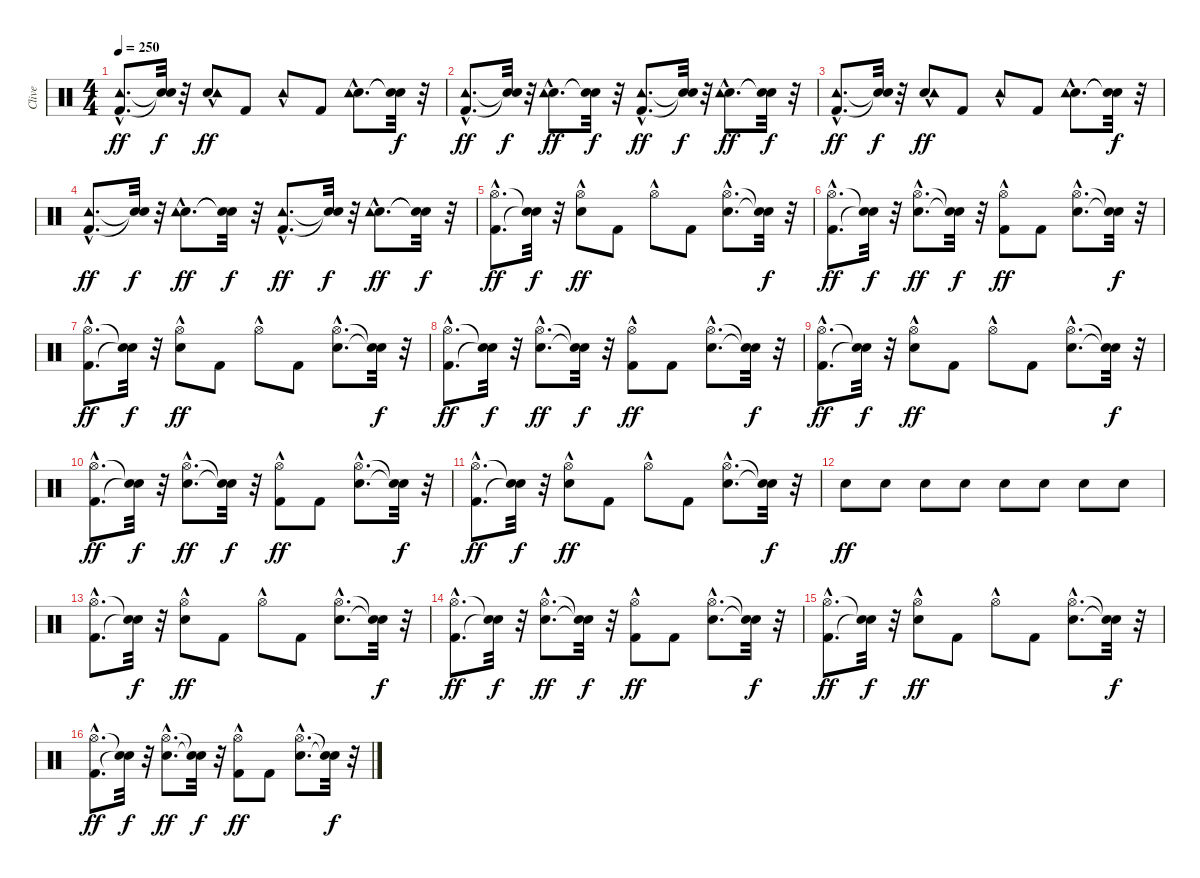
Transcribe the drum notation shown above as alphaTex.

\track ("Clive" "Clive") {instrument percussion}
\staff {score}
\articulation defaults
\ts (4 4)
\tempo 250
\clef neutral
\ks c
("Kick (hit) 2"{hac} "Tambourine (hit)"{hac}).8{d dy ff} ("Snare (hit)"{t} "Snare (hit)"{t}).32{dy f} r.32 ("Snare (hit) 2" "Tambourine (hit)"{hac}).8{dy ff} "Kick (hit) 2".8 "Tambourine (hit)"{hac}.8 "Kick (hit) 2".8 ("Snare (hit) 2"{hac} "Tambourine (hit)"{hac}).8{d} ("Snare (hit)"{t} "Snare (hit)"{t}).32{dy f} r.32 |
("Kick (hit) 2"{hac} "Tambourine (hit)"{hac}).8{d dy ff} ("Snare (hit)"{t} "Snare (hit)"{t}).32{dy f} r.32 ("Snare (hit) 2"{hac} "Tambourine (hit)"{hac}).8{d dy ff} ("Snare (hit)"{t} "Snare (hit)"{t}).32{dy f} r.32 ("Kick (hit) 2"{hac} "Tambourine (hit)"{hac}).8{d dy ff} ("Snare (hit)"{t} "Snare (hit)"{t}).32{dy f} r.32 ("Snare (hit) 2"{hac} "Tambourine (hit)"{hac}).8{d dy ff} ("Snare (hit)"{t} "Snare (hit)"{t}).32{dy f} r.32 |
("Kick (hit) 2"{hac} "Tambourine (hit)"{hac}).8{d dy ff} ("Snare (hit)"{t} "Snare (hit)"{t}).32{dy f} r.32 ("Snare (hit) 2" "Tambourine (hit)"{hac}).8{dy ff} "Kick (hit) 2".8 "Tambourine (hit)"{hac}.8 "Kick (hit) 2".8 ("Snare (hit) 2"{hac} "Tambourine (hit)"{hac}).8{d} ("Snare (hit)"{t} "Snare (hit)"{t}).32{dy f} r.32 |
("Kick (hit) 2"{hac} "Tambourine (hit)"{hac}).8{d dy ff} ("Snare (hit)"{t} "Snare (hit)"{t}).32{dy f} r.32 ("Snare (hit) 2"{hac} "Tambourine (hit)"{hac}).8{d dy ff} ("Snare (hit)"{t} "Snare (hit)"{t}).32{dy f} r.32 ("Kick (hit) 2"{hac} "Tambourine (hit)"{hac}).8{d dy ff} ("Snare (hit)"{t} "Snare (hit)"{t}).32{dy f} r.32 ("Snare (hit) 2"{hac} "Tambourine (hit)"{hac}).8{d dy ff} ("Snare (hit)"{t} "Snare (hit)"{t}).32{dy f} r.32 |
("Kick (hit) 2"{hac} "Hi-Hat (open)"{hac}).8{d dy ff} ("Snare (hit)"{t} "Snare (hit)"{t}).32{dy f} r.32 ("Snare (hit) 2" "Hi-Hat (open)"{hac}).8{dy ff} "Kick (hit) 2".8 "Hi-Hat (open)"{hac}.8 "Kick (hit) 2".8 ("Snare (hit) 2"{hac} "Hi-Hat (open)"{hac}).8{d} ("Snare (hit)"{t} "Snare (hit)"{t}).32{dy f} r.32 |
("Kick (hit) 2"{hac} "Hi-Hat (open)"{hac}).8{d dy ff} ("Snare (hit)"{t} "Snare (hit)"{t}).32{dy f} r.32 ("Snare (hit) 2"{hac} "Hi-Hat (open)"{hac}).8{d dy ff} ("Snare (hit)"{t} "Snare (hit)"{t}).32{dy f} r.32 ("Kick (hit) 2" "Hi-Hat (open)"{hac}).8{dy ff} "Kick (hit) 2".8 ("Snare (hit) 2"{hac} "Hi-Hat (open)"{hac}).8{d} ("Snare (hit)"{t} "Snare (hit)"{t}).32{dy f} r.32 |
("Kick (hit) 2"{hac} "Hi-Hat (open)"{hac}).8{d dy ff} ("Snare (hit)"{t} "Snare (hit)"{t}).32{dy f} r.32 ("Snare (hit) 2" "Hi-Hat (open)"{hac}).8{dy ff} "Kick (hit) 2".8 "Hi-Hat (open)"{hac}.8 "Kick (hit) 2".8 ("Snare (hit) 2"{hac} "Hi-Hat (open)"{hac}).8{d} ("Snare (hit)"{t} "Snare (hit)"{t}).32{dy f} r.32 |
("Kick (hit) 2"{hac} "Hi-Hat (open)"{hac}).8{d dy ff} ("Snare (hit)"{t} "Snare (hit)"{t}).32{dy f} r.32 ("Snare (hit) 2"{hac} "Hi-Hat (open)"{hac}).8{d dy ff} ("Snare (hit)"{t} "Snare (hit)"{t}).32{dy f} r.32 ("Kick (hit) 2" "Hi-Hat (open)"{hac}).8{dy ff} "Kick (hit) 2".8 ("Snare (hit) 2"{hac} "Hi-Hat (open)"{hac}).8{d} ("Snare (hit)"{t} "Snare (hit)"{t}).32{dy f} r.32 |
("Kick (hit) 2"{hac} "Hi-Hat (open)"{hac}).8{d dy ff} ("Snare (hit)"{t} "Snare (hit)"{t}).32{dy f} r.32 ("Snare (hit) 2" "Hi-Hat (open)"{hac}).8{dy ff} "Kick (hit) 2".8 "Hi-Hat (open)"{hac}.8 "Kick (hit) 2".8 ("Snare (hit) 2"{hac} "Hi-Hat (open)"{hac}).8{d} ("Snare (hit)"{t} "Snare (hit)"{t}).32{dy f} r.32 |
("Kick (hit) 2"{hac} "Hi-Hat (open)"{hac}).8{d dy ff} ("Snare (hit)"{t} "Snare (hit)"{t}).32{dy f} r.32 ("Snare (hit) 2"{hac} "Hi-Hat (open)"{hac}).8{d dy ff} ("Snare (hit)"{t} "Snare (hit)"{t}).32{dy f} r.32 ("Kick (hit) 2" "Hi-Hat (open)"{hac}).8{dy ff} "Kick (hit) 2".8 ("Snare (hit) 2"{hac} "Hi-Hat (open)"{hac}).8{d} ("Snare (hit)"{t} "Snare (hit)"{t}).32{dy f} r.32 |
("Kick (hit) 2"{hac} "Hi-Hat (open)"{hac}).8{d dy ff} ("Snare (hit)"{t} "Snare (hit)"{t}).32{dy f} r.32 ("Snare (hit) 2" "Hi-Hat (open)"{hac}).8{dy ff} "Kick (hit) 2".8 "Hi-Hat (open)"{hac}.8 "Kick (hit) 2".8 ("Snare (hit) 2"{hac} "Hi-Hat (open)"{hac}).8{d} ("Snare (hit)"{t} "Snare (hit)"{t}).32{dy f} r.32 |
"Snare (hit) 2".8{dy ff} "Snare (hit) 2".8 "Snare (hit) 2".8 "Snare (hit) 2".8 "Snare (hit) 2".8 "Snare (hit) 2".8 "Snare (hit) 2".8 "Snare (hit) 2".8 |
("Kick (hit) 2"{hac} "Hi-Hat (open)"{hac}).8{d} ("Snare (hit)"{t} "Snare (hit)"{t}).32{dy f} r.32 ("Snare (hit) 2" "Hi-Hat (open)"{hac}).8{dy ff} "Kick (hit) 2".8 "Hi-Hat (open)"{hac}.8 "Kick (hit) 2".8 ("Snare (hit) 2"{hac} "Hi-Hat (open)"{hac}).8{d} ("Snare (hit)"{t} "Snare (hit)"{t}).32{dy f} r.32 |
("Kick (hit) 2"{hac} "Hi-Hat (open)"{hac}).8{d dy ff} ("Snare (hit)"{t} "Snare (hit)"{t}).32{dy f} r.32 ("Snare (hit) 2"{hac} "Hi-Hat (open)"{hac}).8{d dy ff} ("Snare (hit)"{t} "Snare (hit)"{t}).32{dy f} r.32 ("Kick (hit) 2" "Hi-Hat (open)"{hac}).8{dy ff} "Kick (hit) 2".8 ("Snare (hit) 2"{hac} "Hi-Hat (open)"{hac}).8{d} ("Snare (hit)"{t} "Snare (hit)"{t}).32{dy f} r.32 |
("Kick (hit) 2"{hac} "Hi-Hat (open)"{hac}).8{d dy ff} ("Snare (hit)"{t} "Snare (hit)"{t}).32{dy f} r.32 ("Snare (hit) 2" "Hi-Hat (open)"{hac}).8{dy ff} "Kick (hit) 2".8 "Hi-Hat (open)"{hac}.8 "Kick (hit) 2".8 ("Snare (hit) 2"{hac} "Hi-Hat (open)"{hac}).8{d} ("Snare (hit)"{t} "Snare (hit)"{t}).32{dy f} r.32 |
("Kick (hit) 2"{hac} "Hi-Hat (open)"{hac}).8{d dy ff} ("Snare (hit)"{t} "Snare (hit)"{t}).32{dy f} r.32 ("Snare (hit) 2"{hac} "Hi-Hat (open)"{hac}).8{d dy ff} ("Snare (hit)"{t} "Snare (hit)"{t}).32{dy f} r.32 ("Kick (hit) 2" "Hi-Hat (open)"{hac}).8{dy ff} "Kick (hit) 2".8 ("Snare (hit) 2"{hac} "Hi-Hat (open)"{hac}).8{d} ("Snare (hit)"{t} "Snare (hit)"{t}).32{dy f} r.32
